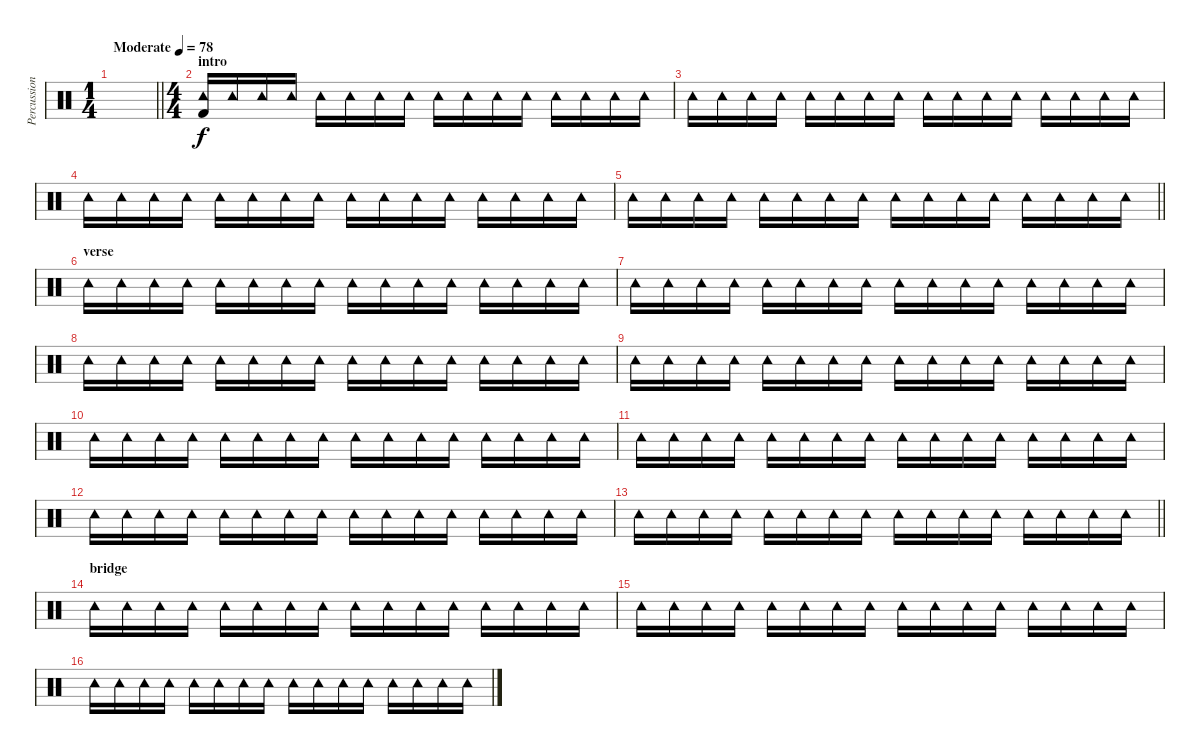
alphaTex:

\track ("Percussion" "Percussion") {instrument percussion}
\staff {score}
\articulation defaults
\ts (1 4)
\tempo (78 "Moderate")
\clef neutral
\barLineRight lightlight
\ks c
|
\ts (4 4)
\section ("" "intro")
("Tambourine (hit)" "Kick (hit) 2").16 "Tambourine (hit)".16 "Tambourine (hit)".16 "Tambourine (hit)".16 "Tambourine (hit)".16 "Tambourine (hit)".16 "Tambourine (hit)".16 "Tambourine (hit)".16 "Tambourine (hit)".16 "Tambourine (hit)".16 "Tambourine (hit)".16 "Tambourine (hit)".16 "Tambourine (hit)".16 "Tambourine (hit)".16 "Tambourine (hit)".16 "Tambourine (hit)".16 |
"Tambourine (hit)".16 "Tambourine (hit)".16 "Tambourine (hit)".16 "Tambourine (hit)".16 "Tambourine (hit)".16 "Tambourine (hit)".16 "Tambourine (hit)".16 "Tambourine (hit)".16 "Tambourine (hit)".16 "Tambourine (hit)".16 "Tambourine (hit)".16 "Tambourine (hit)".16 "Tambourine (hit)".16 "Tambourine (hit)".16 "Tambourine (hit)".16 "Tambourine (hit)".16 |
"Tambourine (hit)".16 "Tambourine (hit)".16 "Tambourine (hit)".16 "Tambourine (hit)".16 "Tambourine (hit)".16 "Tambourine (hit)".16 "Tambourine (hit)".16 "Tambourine (hit)".16 "Tambourine (hit)".16 "Tambourine (hit)".16 "Tambourine (hit)".16 "Tambourine (hit)".16 "Tambourine (hit)".16 "Tambourine (hit)".16 "Tambourine (hit)".16 "Tambourine (hit)".16 |
\barLineRight lightlight "Tambourine (hit)".16 "Tambourine (hit)".16 "Tambourine (hit)".16 "Tambourine (hit)".16 "Tambourine (hit)".16 "Tambourine (hit)".16 "Tambourine (hit)".16 "Tambourine (hit)".16 "Tambourine (hit)".16 "Tambourine (hit)".16 "Tambourine (hit)".16 "Tambourine (hit)".16 "Tambourine (hit)".16 "Tambourine (hit)".16 "Tambourine (hit)".16 "Tambourine (hit)".16
|
\section ("" "verse")
"Tambourine (hit)".16 "Tambourine (hit)".16 "Tambourine (hit)".16 "Tambourine (hit)".16 "Tambourine (hit)".16 "Tambourine (hit)".16 "Tambourine (hit)".16 "Tambourine (hit)".16 "Tambourine (hit)".16 "Tambourine (hit)".16 "Tambourine (hit)".16 "Tambourine (hit)".16 "Tambourine (hit)".16 "Tambourine (hit)".16 "Tambourine (hit)".16 "Tambourine (hit)".16 |
"Tambourine (hit)".16 "Tambourine (hit)".16 "Tambourine (hit)".16 "Tambourine (hit)".16 "Tambourine (hit)".16 "Tambourine (hit)".16 "Tambourine (hit)".16 "Tambourine (hit)".16 "Tambourine (hit)".16 "Tambourine (hit)".16 "Tambourine (hit)".16 "Tambourine (hit)".16 "Tambourine (hit)".16 "Tambourine (hit)".16 "Tambourine (hit)".16 "Tambourine (hit)".16 |
"Tambourine (hit)".16 "Tambourine (hit)".16 "Tambourine (hit)".16 "Tambourine (hit)".16 "Tambourine (hit)".16 "Tambourine (hit)".16 "Tambourine (hit)".16 "Tambourine (hit)".16 "Tambourine (hit)".16 "Tambourine (hit)".16 "Tambourine (hit)".16 "Tambourine (hit)".16 "Tambourine (hit)".16 "Tambourine (hit)".16 "Tambourine (hit)".16 "Tambourine (hit)".16 |
"Tambourine (hit)".16 "Tambourine (hit)".16 "Tambourine (hit)".16 "Tambourine (hit)".16 "Tambourine (hit)".16 "Tambourine (hit)".16 "Tambourine (hit)".16 "Tambourine (hit)".16 "Tambourine (hit)".16 "Tambourine (hit)".16 "Tambourine (hit)".16 "Tambourine (hit)".16 "Tambourine (hit)".16 "Tambourine (hit)".16 "Tambourine (hit)".16 "Tambourine (hit)".16 |
"Tambourine (hit)".16 "Tambourine (hit)".16 "Tambourine (hit)".16 "Tambourine (hit)".16 "Tambourine (hit)".16 "Tambourine (hit)".16 "Tambourine (hit)".16 "Tambourine (hit)".16 "Tambourine (hit)".16 "Tambourine (hit)".16 "Tambourine (hit)".16 "Tambourine (hit)".16 "Tambourine (hit)".16 "Tambourine (hit)".16 "Tambourine (hit)".16 "Tambourine (hit)".16 |
"Tambourine (hit)".16 "Tambourine (hit)".16 "Tambourine (hit)".16 "Tambourine (hit)".16 "Tambourine (hit)".16 "Tambourine (hit)".16 "Tambourine (hit)".16 "Tambourine (hit)".16 "Tambourine (hit)".16 "Tambourine (hit)".16 "Tambourine (hit)".16 "Tambourine (hit)".16 "Tambourine (hit)".16 "Tambourine (hit)".16 "Tambourine (hit)".16 "Tambourine (hit)".16 |
"Tambourine (hit)".16 "Tambourine (hit)".16 "Tambourine (hit)".16 "Tambourine (hit)".16 "Tambourine (hit)".16 "Tambourine (hit)".16 "Tambourine (hit)".16 "Tambourine (hit)".16 "Tambourine (hit)".16 "Tambourine (hit)".16 "Tambourine (hit)".16 "Tambourine (hit)".16 "Tambourine (hit)".16 "Tambourine (hit)".16 "Tambourine (hit)".16 "Tambourine (hit)".16 |
\barLineRight lightlight "Tambourine (hit)".16 "Tambourine (hit)".16 "Tambourine (hit)".16 "Tambourine (hit)".16 "Tambourine (hit)".16 "Tambourine (hit)".16 "Tambourine (hit)".16 "Tambourine (hit)".16 "Tambourine (hit)".16 "Tambourine (hit)".16 "Tambourine (hit)".16 "Tambourine (hit)".16 "Tambourine (hit)".16 "Tambourine (hit)".16 "Tambourine (hit)".16 "Tambourine (hit)".16
|
\section ("" "bridge")
"Tambourine (hit)".16 "Tambourine (hit)".16 "Tambourine (hit)".16 "Tambourine (hit)".16 "Tambourine (hit)".16 "Tambourine (hit)".16 "Tambourine (hit)".16 "Tambourine (hit)".16 "Tambourine (hit)".16 "Tambourine (hit)".16 "Tambourine (hit)".16 "Tambourine (hit)".16 "Tambourine (hit)".16 "Tambourine (hit)".16 "Tambourine (hit)".16 "Tambourine (hit)".16 |
"Tambourine (hit)".16 "Tambourine (hit)".16 "Tambourine (hit)".16 "Tambourine (hit)".16 "Tambourine (hit)".16 "Tambourine (hit)".16 "Tambourine (hit)".16 "Tambourine (hit)".16 "Tambourine (hit)".16 "Tambourine (hit)".16 "Tambourine (hit)".16 "Tambourine (hit)".16 "Tambourine (hit)".16 "Tambourine (hit)".16 "Tambourine (hit)".16 "Tambourine (hit)".16 |
"Tambourine (hit)".16 "Tambourine (hit)".16 "Tambourine (hit)".16 "Tambourine (hit)".16 "Tambourine (hit)".16 "Tambourine (hit)".16 "Tambourine (hit)".16 "Tambourine (hit)".16 "Tambourine (hit)".16 "Tambourine (hit)".16 "Tambourine (hit)".16 "Tambourine (hit)".16 "Tambourine (hit)".16 "Tambourine (hit)".16 "Tambourine (hit)".16 "Tambourine (hit)".16
